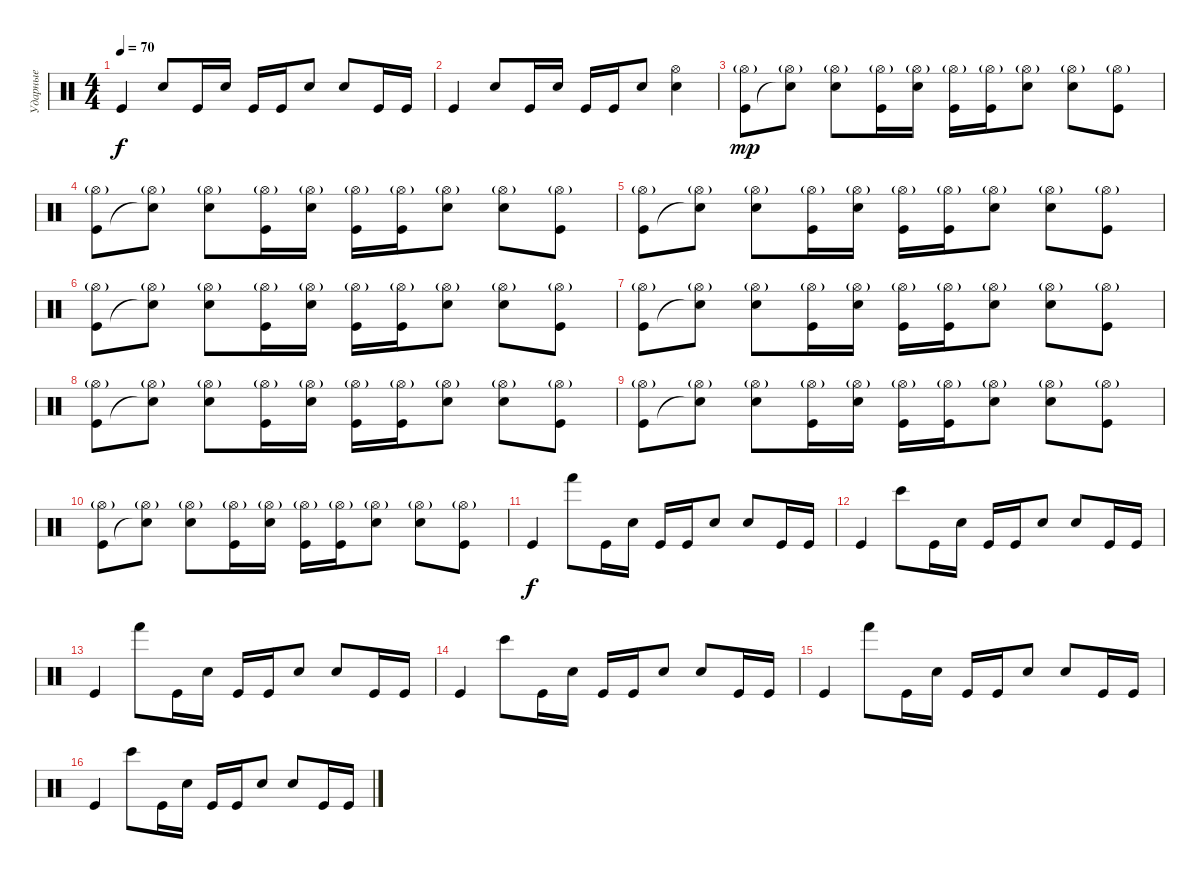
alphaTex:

\track ("Ударные" "Ударные") {instrument percussion}
\staff {score}
\articulation defaults
\ts (4 4)
\tempo 70
\clef neutral
\ks c "Kick (hit)".4{dy f} "Snare (hit) 2".8 "Kick (hit)".16 "Snare (hit) 2".16 "Kick (hit)".16 "Kick (hit)".16 "Snare (hit) 2".8 "Snare (hit) 2".8 "Kick (hit)".16 "Kick (hit)".16
|
"Kick (hit)".4 "Snare (hit) 2".8 "Kick (hit)".16 "Snare (hit) 2".16 "Kick (hit)".16 "Kick (hit)".16 "Snare (hit) 2".8 ("Hi-Hat (open)" "Snare (hit) 2").4 |
("Hi-Hat (open)"{g} "Kick (hit)").8{dy mp} ("Hi-Hat (open)"{g} "Snare (hit)"{t}).8 ("Hi-Hat (open)"{g} "Snare (hit) 2").8 ("Hi-Hat (open)"{g} "Kick (hit)").16 ("Hi-Hat (open)"{g} "Snare (hit) 2").16 ("Hi-Hat (open)"{g} "Kick (hit)").16 ("Hi-Hat (open)"{g} "Kick (hit)").16 ("Hi-Hat (open)"{g} "Snare (hit) 2").8 ("Hi-Hat (open)"{g} "Snare (hit) 2").8 ("Hi-Hat (open)"{g} "Kick (hit)").8 |
("Hi-Hat (open)"{g} "Kick (hit)").8 ("Hi-Hat (open)"{g} "Snare (hit)"{t}).8 ("Hi-Hat (open)"{g} "Snare (hit) 2").8 ("Hi-Hat (open)"{g} "Kick (hit)").16 ("Hi-Hat (open)"{g} "Snare (hit) 2").16 ("Hi-Hat (open)"{g} "Kick (hit)").16 ("Hi-Hat (open)"{g} "Kick (hit)").16 ("Hi-Hat (open)"{g} "Snare (hit) 2").8 ("Hi-Hat (open)"{g} "Snare (hit) 2").8 ("Hi-Hat (open)"{g} "Kick (hit)").8 |
("Hi-Hat (open)"{g} "Kick (hit)").8 ("Hi-Hat (open)"{g} "Snare (hit)"{t}).8 ("Hi-Hat (open)"{g} "Snare (hit) 2").8 ("Hi-Hat (open)"{g} "Kick (hit)").16 ("Hi-Hat (open)"{g} "Snare (hit) 2").16 ("Hi-Hat (open)"{g} "Kick (hit)").16 ("Hi-Hat (open)"{g} "Kick (hit)").16 ("Hi-Hat (open)"{g} "Snare (hit) 2").8 ("Hi-Hat (open)"{g} "Snare (hit) 2").8 ("Hi-Hat (open)"{g} "Kick (hit)").8 |
("Hi-Hat (open)"{g} "Kick (hit)").8 ("Hi-Hat (open)"{g} "Snare (hit)"{t}).8 ("Hi-Hat (open)"{g} "Snare (hit) 2").8 ("Hi-Hat (open)"{g} "Kick (hit)").16 ("Hi-Hat (open)"{g} "Snare (hit) 2").16 ("Hi-Hat (open)"{g} "Kick (hit)").16 ("Hi-Hat (open)"{g} "Kick (hit)").16 ("Hi-Hat (open)"{g} "Snare (hit) 2").8 ("Hi-Hat (open)"{g} "Snare (hit) 2").8 ("Hi-Hat (open)"{g} "Kick (hit)").8 |
("Hi-Hat (open)"{g} "Kick (hit)").8 ("Hi-Hat (open)"{g} "Snare (hit)"{t}).8 ("Hi-Hat (open)"{g} "Snare (hit) 2").8 ("Hi-Hat (open)"{g} "Kick (hit)").16 ("Hi-Hat (open)"{g} "Snare (hit) 2").16 ("Hi-Hat (open)"{g} "Kick (hit)").16 ("Hi-Hat (open)"{g} "Kick (hit)").16 ("Hi-Hat (open)"{g} "Snare (hit) 2").8 ("Hi-Hat (open)"{g} "Snare (hit) 2").8 ("Hi-Hat (open)"{g} "Kick (hit)").8 |
("Hi-Hat (open)"{g} "Kick (hit)").8 ("Hi-Hat (open)"{g} "Snare (hit)"{t}).8 ("Hi-Hat (open)"{g} "Snare (hit) 2").8 ("Hi-Hat (open)"{g} "Kick (hit)").16 ("Hi-Hat (open)"{g} "Snare (hit) 2").16 ("Hi-Hat (open)"{g} "Kick (hit)").16 ("Hi-Hat (open)"{g} "Kick (hit)").16 ("Hi-Hat (open)"{g} "Snare (hit) 2").8 ("Hi-Hat (open)"{g} "Snare (hit) 2").8 ("Hi-Hat (open)"{g} "Kick (hit)").8 |
("Hi-Hat (open)"{g} "Kick (hit)").8 ("Hi-Hat (open)"{g} "Snare (hit)"{t}).8 ("Hi-Hat (open)"{g} "Snare (hit) 2").8 ("Hi-Hat (open)"{g} "Kick (hit)").16 ("Hi-Hat (open)"{g} "Snare (hit) 2").16 ("Hi-Hat (open)"{g} "Kick (hit)").16 ("Hi-Hat (open)"{g} "Kick (hit)").16 ("Hi-Hat (open)"{g} "Snare (hit) 2").8 ("Hi-Hat (open)"{g} "Snare (hit) 2").8 ("Hi-Hat (open)"{g} "Kick (hit)").8 |
("Hi-Hat (open)"{g} "Kick (hit)").8 ("Hi-Hat (open)"{g} "Snare (hit)"{t}).8 ("Hi-Hat (open)"{g} "Snare (hit) 2").8 ("Hi-Hat (open)"{g} "Kick (hit)").16 ("Hi-Hat (open)"{g} "Snare (hit) 2").16 ("Hi-Hat (open)"{g} "Kick (hit)").16 ("Hi-Hat (open)"{g} "Kick (hit)").16 ("Hi-Hat (open)"{g} "Snare (hit) 2").8 ("Hi-Hat (open)"{g} "Snare (hit) 2").8 ("Hi-Hat (open)"{g} "Kick (hit)").8 |
"Kick (hit)".4{dy f} "Hand (hit)".8 "Kick (hit)".16 "Snare (hit) 2".16 "Kick (hit)".16 "Kick (hit)".16 "Snare (hit) 2".8 "Snare (hit) 2".8 "Kick (hit)".16 "Kick (hit)".16 |
"Kick (hit)".4 "Bongo High (hit)".8 "Kick (hit)".16 "Snare (hit) 2".16 "Kick (hit)".16 "Kick (hit)".16 "Snare (hit) 2".8 "Snare (hit) 2".8 "Kick (hit)".16 "Kick (hit)".16 |
"Kick (hit)".4 "Hand (hit)".8 "Kick (hit)".16 "Snare (hit) 2".16 "Kick (hit)".16 "Kick (hit)".16 "Snare (hit) 2".8 "Snare (hit) 2".8 "Kick (hit)".16 "Kick (hit)".16 |
"Kick (hit)".4 "Bongo High (hit)".8 "Kick (hit)".16 "Snare (hit) 2".16 "Kick (hit)".16 "Kick (hit)".16 "Snare (hit) 2".8 "Snare (hit) 2".8 "Kick (hit)".16 "Kick (hit)".16 |
"Kick (hit)".4 "Hand (hit)".8 "Kick (hit)".16 "Snare (hit) 2".16 "Kick (hit)".16 "Kick (hit)".16 "Snare (hit) 2".8 "Snare (hit) 2".8 "Kick (hit)".16 "Kick (hit)".16 |
"Kick (hit)".4 "Bongo High (hit)".8 "Kick (hit)".16 "Snare (hit) 2".16 "Kick (hit)".16 "Kick (hit)".16 "Snare (hit) 2".8 "Snare (hit) 2".8 "Kick (hit)".16 "Kick (hit)".16
